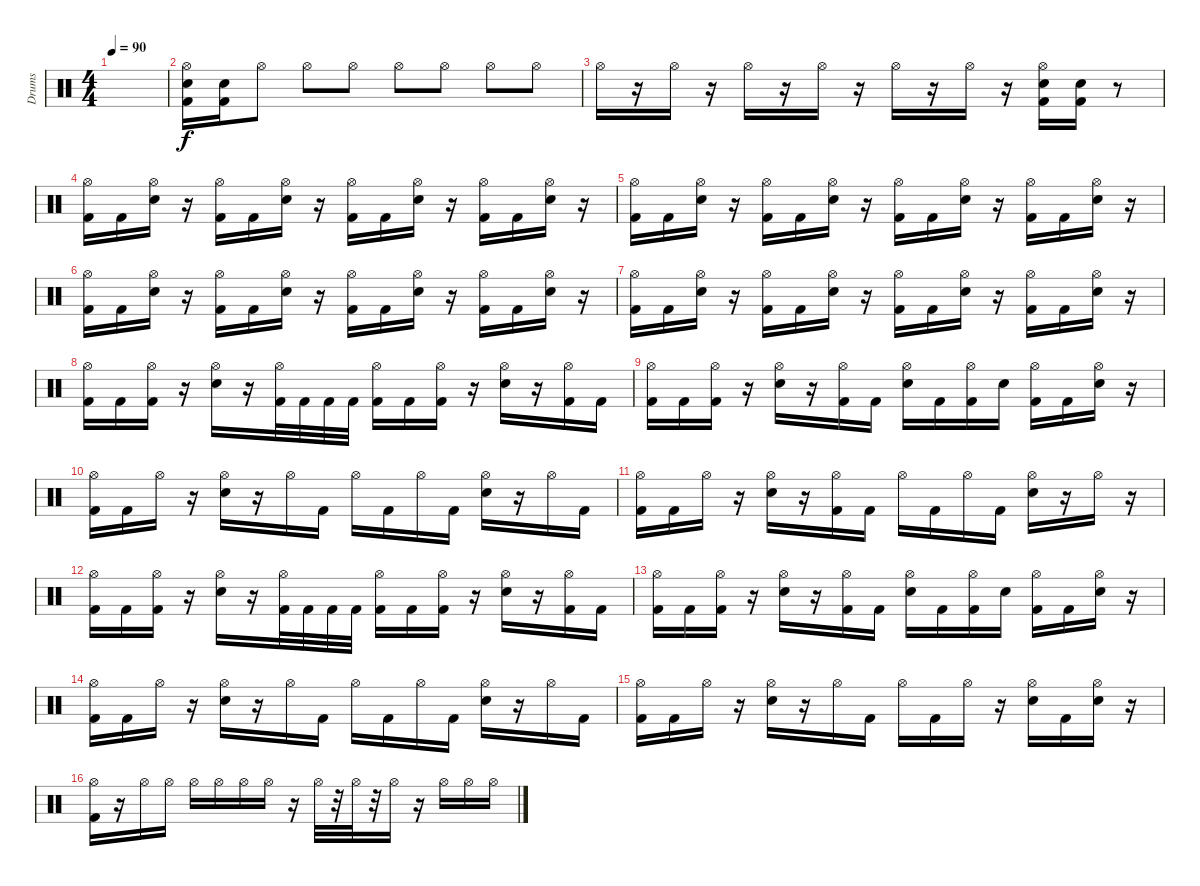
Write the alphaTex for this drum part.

\track ("Drums" "Drums") {instrument percussion}
\staff {score}
\articulation defaults
\ts (4 4)
\tempo 90
\clef neutral
\ks c
|
("Hi-Hat (open)" "Snare (hit) 2" "Kick (hit) 2").16 ("Snare (hit) 2" "Kick (hit) 2").16 "Hi-Hat (open)".8 "Hi-Hat (open)".8 "Hi-Hat (open)".8 "Hi-Hat (open)".8 "Hi-Hat (open)".8 "Hi-Hat (open)".8 "Hi-Hat (open)".8 |
"Hi-Hat (open)".16 r.16 "Hi-Hat (open)".16 r.16 "Hi-Hat (open)".16 r.16 "Hi-Hat (open)".16 r.16 "Hi-Hat (open)".16 r.16 "Hi-Hat (open)".16 r.16 ("Hi-Hat (open)" "Snare (hit) 2" "Kick (hit) 2").16 ("Snare (hit) 2" "Kick (hit) 2").16 r.8 |
("Hi-Hat (open)" "Kick (hit) 2").16 "Kick (hit) 2".16 ("Hi-Hat (open)" "Snare (hit) 2").16 r.16 ("Hi-Hat (open)" "Kick (hit) 2").16 "Kick (hit) 2".16 ("Hi-Hat (open)" "Snare (hit) 2").16 r.16 ("Hi-Hat (open)" "Kick (hit) 2").16 "Kick (hit) 2".16 ("Hi-Hat (open)" "Snare (hit) 2").16 r.16 ("Hi-Hat (open)" "Kick (hit) 2").16 "Kick (hit) 2".16 ("Hi-Hat (open)" "Snare (hit) 2").16 r.16 |
("Hi-Hat (open)" "Kick (hit) 2").16 "Kick (hit) 2".16 ("Hi-Hat (open)" "Snare (hit) 2").16 r.16 ("Hi-Hat (open)" "Kick (hit) 2").16 "Kick (hit) 2".16 ("Hi-Hat (open)" "Snare (hit) 2").16 r.16 ("Hi-Hat (open)" "Kick (hit) 2").16 "Kick (hit) 2".16 ("Hi-Hat (open)" "Snare (hit) 2").16 r.16 ("Hi-Hat (open)" "Kick (hit) 2").16 "Kick (hit) 2".16 ("Hi-Hat (open)" "Snare (hit) 2").16 r.16 |
("Hi-Hat (open)" "Kick (hit) 2").16 "Kick (hit) 2".16 ("Hi-Hat (open)" "Snare (hit) 2").16 r.16 ("Hi-Hat (open)" "Kick (hit) 2").16 "Kick (hit) 2".16 ("Hi-Hat (open)" "Snare (hit) 2").16 r.16 ("Hi-Hat (open)" "Kick (hit) 2").16 "Kick (hit) 2".16 ("Hi-Hat (open)" "Snare (hit) 2").16 r.16 ("Hi-Hat (open)" "Kick (hit) 2").16 "Kick (hit) 2".16 ("Hi-Hat (open)" "Snare (hit) 2").16 r.16 |
("Hi-Hat (open)" "Kick (hit) 2").16 "Kick (hit) 2".16 ("Hi-Hat (open)" "Snare (hit) 2").16 r.16 ("Hi-Hat (open)" "Kick (hit) 2").16 "Kick (hit) 2".16 ("Hi-Hat (open)" "Snare (hit) 2").16 r.16 ("Hi-Hat (open)" "Kick (hit) 2").16 "Kick (hit) 2".16 ("Hi-Hat (open)" "Snare (hit) 2").16 r.16 ("Hi-Hat (open)" "Kick (hit) 2").16 "Kick (hit) 2".16 ("Hi-Hat (open)" "Snare (hit) 2").16 r.16 |
("Hi-Hat (open)" "Kick (hit) 2").16 "Kick (hit) 2".16 ("Hi-Hat (open)" "Kick (hit) 2").16 r.16 ("Hi-Hat (open)" "Snare (hit) 2").16 r.16 ("Hi-Hat (open)" "Kick (hit) 2").32 "Kick (hit) 2".32 "Kick (hit) 2".32 "Kick (hit) 2".32 ("Hi-Hat (open)" "Kick (hit) 2").16 "Kick (hit) 2".16 ("Hi-Hat (open)" "Kick (hit) 2").16 r.16 ("Hi-Hat (open)" "Snare (hit) 2").16 r.16 ("Hi-Hat (open)" "Kick (hit) 2").16 "Kick (hit) 2".16 |
("Hi-Hat (open)" "Kick (hit) 2").16 "Kick (hit) 2".16 ("Hi-Hat (open)" "Kick (hit) 2").16 r.16 ("Hi-Hat (open)" "Snare (hit) 2").16 r.16 ("Hi-Hat (open)" "Kick (hit) 2").16 "Kick (hit) 2".16 ("Hi-Hat (open)" "Snare (hit) 2").16 "Kick (hit) 2".16 ("Hi-Hat (open)" "Kick (hit) 2").16 "Snare (hit) 2".16 ("Hi-Hat (open)" "Kick (hit) 2").16 "Kick (hit) 2".16 ("Hi-Hat (open)" "Snare (hit) 2").16 r.16 |
("Hi-Hat (open)" "Kick (hit) 2").16 "Kick (hit) 2".16 "Hi-Hat (open)".16 r.16 ("Hi-Hat (open)" "Snare (hit) 2").16 r.16 "Hi-Hat (open)".16 "Kick (hit) 2".16 "Hi-Hat (open)".16 "Kick (hit) 2".16 "Hi-Hat (open)".16 "Kick (hit) 2".16 ("Hi-Hat (open)" "Snare (hit) 2").16 r.16 "Hi-Hat (open)".16 "Kick (hit) 2".16 |
("Hi-Hat (open)" "Kick (hit) 2").16 "Kick (hit) 2".16 "Hi-Hat (open)".16 r.16 ("Hi-Hat (open)" "Snare (hit) 2").16 r.16 ("Hi-Hat (open)" "Kick (hit) 2").16 "Kick (hit) 2".16 "Hi-Hat (open)".16 "Kick (hit) 2".16 "Hi-Hat (open)".16 "Kick (hit) 2".16 ("Hi-Hat (open)" "Snare (hit) 2").16 r.16 "Hi-Hat (open)".16 r.16 |
("Hi-Hat (open)" "Kick (hit) 2").16 "Kick (hit) 2".16 ("Hi-Hat (open)" "Kick (hit) 2").16 r.16 ("Hi-Hat (open)" "Snare (hit) 2").16 r.16 ("Hi-Hat (open)" "Kick (hit) 2").32 "Kick (hit) 2".32 "Kick (hit) 2".32 "Kick (hit) 2".32 ("Hi-Hat (open)" "Kick (hit) 2").16 "Kick (hit) 2".16 ("Hi-Hat (open)" "Kick (hit) 2").16 r.16 ("Hi-Hat (open)" "Snare (hit) 2").16 r.16 ("Hi-Hat (open)" "Kick (hit) 2").16 "Kick (hit) 2".16 |
("Hi-Hat (open)" "Kick (hit) 2").16 "Kick (hit) 2".16 ("Hi-Hat (open)" "Kick (hit) 2").16 r.16 ("Hi-Hat (open)" "Snare (hit) 2").16 r.16 ("Hi-Hat (open)" "Kick (hit) 2").16 "Kick (hit) 2".16 ("Hi-Hat (open)" "Snare (hit) 2").16 "Kick (hit) 2".16 ("Hi-Hat (open)" "Kick (hit) 2").16 "Snare (hit) 2".16 ("Hi-Hat (open)" "Kick (hit) 2").16 "Kick (hit) 2".16 ("Hi-Hat (open)" "Snare (hit) 2").16 r.16 |
("Hi-Hat (open)" "Kick (hit) 2").16 "Kick (hit) 2".16 "Hi-Hat (open)".16 r.16 ("Hi-Hat (open)" "Snare (hit) 2").16 r.16 "Hi-Hat (open)".16 "Kick (hit) 2".16 "Hi-Hat (open)".16 "Kick (hit) 2".16 "Hi-Hat (open)".16 "Kick (hit) 2".16 ("Hi-Hat (open)" "Snare (hit) 2").16 r.16 "Hi-Hat (open)".16 "Kick (hit) 2".16 |
("Hi-Hat (open)" "Kick (hit) 2").16 "Kick (hit) 2".16 "Hi-Hat (open)".16 r.16 ("Hi-Hat (open)" "Snare (hit) 2").16 r.16 "Hi-Hat (open)".16 "Kick (hit) 2".16 "Hi-Hat (open)".16 "Kick (hit) 2".16 "Hi-Hat (open)".16 r.16 ("Hi-Hat (open)" "Snare (hit) 2").16 "Kick (hit) 2".16 ("Hi-Hat (open)" "Snare (hit) 2").16 r.16 |
("Hi-Hat (open)" "Kick (hit) 2").16 r.16 "Hi-Hat (open)".16 "Hi-Hat (open)".16 "Hi-Hat (open)".16 "Hi-Hat (open)".16 "Hi-Hat (open)".16 "Hi-Hat (open)".16 r.16 "Hi-Hat (open)".32 r.32 "Hi-Hat (open)".32 r.32 "Hi-Hat (open)".16 r.16 "Hi-Hat (open)".16 "Hi-Hat (open)".16 "Hi-Hat (open)".16
